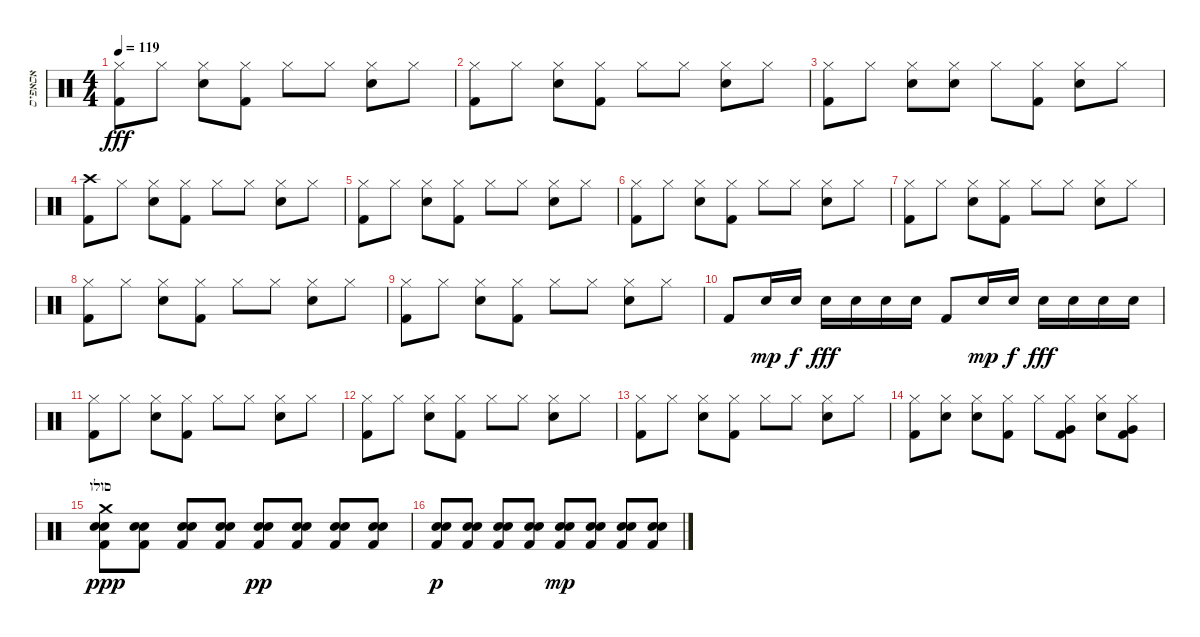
\track ("אסאפיס" "אסאפיס") {instrument percussion}
\staff {score}
\articulation defaults
\ts (4 4)
\tempo 119
\clef neutral
\ks c
("Hi-Hat (closed)" "Kick (hit) 2").8{dy fff} "Hi-Hat (closed)".8 ("Hi-Hat (closed)" "Snare (hit) 2").8 ("Hi-Hat (closed)" "Kick (hit) 2").8 "Hi-Hat (closed)".8 "Hi-Hat (closed)".8 ("Hi-Hat (closed)" "Snare (hit) 2").8 "Hi-Hat (closed)".8 |
("Hi-Hat (closed)" "Kick (hit) 2").8 "Hi-Hat (closed)".8 ("Hi-Hat (closed)" "Snare (hit) 2").8 ("Hi-Hat (closed)" "Kick (hit) 2").8 "Hi-Hat (closed)".8 "Hi-Hat (closed)".8 ("Hi-Hat (closed)" "Snare (hit) 2").8 "Hi-Hat (closed)".8 |
("Hi-Hat (closed)" "Kick (hit) 2").8 "Hi-Hat (closed)".8 ("Hi-Hat (closed)" "Snare (hit) 2").8 ("Hi-Hat (closed)" "Snare (hit) 2").8 "Hi-Hat (closed)".8 ("Hi-Hat (closed)" "Kick (hit) 2").8 ("Hi-Hat (closed)" "Snare (hit) 2").8 "Hi-Hat (closed)".8 |
("Crash high (hit)" "Kick (hit) 2").8 "Hi-Hat (closed)".8 ("Hi-Hat (closed)" "Snare (hit) 2").8 ("Hi-Hat (closed)" "Kick (hit) 2").8 "Hi-Hat (closed)".8 "Hi-Hat (closed)".8 ("Hi-Hat (closed)" "Snare (hit) 2").8 "Hi-Hat (closed)".8 |
("Hi-Hat (closed)" "Kick (hit) 2").8 "Hi-Hat (closed)".8 ("Hi-Hat (closed)" "Snare (hit) 2").8 ("Hi-Hat (closed)" "Kick (hit) 2").8 "Hi-Hat (closed)".8 "Hi-Hat (closed)".8 ("Hi-Hat (closed)" "Snare (hit) 2").8 "Hi-Hat (closed)".8 |
("Hi-Hat (closed)" "Kick (hit) 2").8 "Hi-Hat (closed)".8 ("Hi-Hat (closed)" "Snare (hit) 2").8 ("Hi-Hat (closed)" "Kick (hit) 2").8 "Hi-Hat (closed)".8 "Hi-Hat (closed)".8 ("Hi-Hat (closed)" "Snare (hit) 2").8 "Hi-Hat (closed)".8 |
("Hi-Hat (closed)" "Kick (hit) 2").8 "Hi-Hat (closed)".8 ("Hi-Hat (closed)" "Snare (hit) 2").8 ("Hi-Hat (closed)" "Kick (hit) 2").8 "Hi-Hat (closed)".8 "Hi-Hat (closed)".8 ("Hi-Hat (closed)" "Snare (hit) 2").8 "Hi-Hat (closed)".8 |
("Hi-Hat (closed)" "Kick (hit) 2").8 "Hi-Hat (closed)".8 ("Hi-Hat (closed)" "Snare (hit) 2").8 ("Hi-Hat (closed)" "Kick (hit) 2").8 "Hi-Hat (closed)".8 "Hi-Hat (closed)".8 ("Hi-Hat (closed)" "Snare (hit) 2").8 "Hi-Hat (closed)".8 |
("Hi-Hat (closed)" "Kick (hit) 2").8 "Hi-Hat (closed)".8 ("Hi-Hat (closed)" "Snare (hit) 2").8 ("Hi-Hat (closed)" "Kick (hit) 2").8 "Hi-Hat (closed)".8 "Hi-Hat (closed)".8 ("Hi-Hat (closed)" "Snare (hit) 2").8 "Hi-Hat (closed)".8 |
"Kick (hit) 2".8 "Snare (hit) 2".16{dy mp} "Snare (hit) 2".16{dy f} "Snare (hit) 2".16{dy fff} "Snare (hit) 2".16 "Snare (hit) 2".16 "Snare (hit) 2".16 "Kick (hit) 2".8 "Snare (hit) 2".16{dy mp} "Snare (hit) 2".16{dy f} "Snare (hit) 2".16{dy fff} "Snare (hit) 2".16 "Snare (hit) 2".16 "Snare (hit) 2".16 |
("Hi-Hat (closed)" "Kick (hit) 2").8 "Hi-Hat (closed)".8 ("Hi-Hat (closed)" "Snare (hit) 2").8 ("Hi-Hat (closed)" "Kick (hit) 2").8 "Hi-Hat (closed)".8 "Hi-Hat (closed)".8 ("Hi-Hat (closed)" "Snare (hit) 2").8 "Hi-Hat (closed)".8 |
("Hi-Hat (closed)" "Kick (hit) 2").8 "Hi-Hat (closed)".8 ("Hi-Hat (closed)" "Snare (hit) 2").8 ("Hi-Hat (closed)" "Kick (hit) 2").8 "Hi-Hat (closed)".8 "Hi-Hat (closed)".8 ("Hi-Hat (closed)" "Snare (hit) 2").8 "Hi-Hat (closed)".8 |
("Hi-Hat (closed)" "Kick (hit) 2").8 "Hi-Hat (closed)".8 ("Hi-Hat (closed)" "Snare (hit) 2").8 ("Hi-Hat (closed)" "Kick (hit) 2").8 "Hi-Hat (closed)".8 "Hi-Hat (closed)".8 ("Hi-Hat (closed)" "Snare (hit) 2").8 "Hi-Hat (closed)".8 |
("Hi-Hat (closed)" "Kick (hit) 2").8 ("Hi-Hat (closed)" "Snare (hit) 2").8 ("Hi-Hat (closed)" "Snare (hit) 2").8 ("Hi-Hat (closed)" "Kick (hit) 2").8 "Hi-Hat (closed)".8 ("Hi-Hat (closed)" "Very Low Tom (hit)" "Kick (hit) 2").8 ("Hi-Hat (closed)" "Snare (hit) 2").8 ("Hi-Hat (closed)" "Very Low Tom (hit)" "Kick (hit) 2").8 |
\section ("" "סולו")
("Crash medium (hit)" "Snare (hit) 2" "Snare (hit) 2" "Kick (hit) 2").8{dy ppp} ("Snare (hit) 2" "Snare (hit) 2" "Kick (hit) 2").8 ("Snare (hit) 2" "Snare (hit) 2" "Kick (hit) 2").8 ("Snare (hit) 2" "Snare (hit) 2" "Kick (hit) 2").8 ("Snare (hit) 2" "Snare (hit) 2" "Kick (hit) 2").8{dy pp} ("Snare (hit) 2" "Snare (hit) 2" "Kick (hit) 2").8 ("Snare (hit) 2" "Snare (hit) 2" "Kick (hit) 2").8 ("Snare (hit) 2" "Snare (hit) 2" "Kick (hit) 2").8 |
("Snare (hit) 2" "Snare (hit) 2" "Kick (hit) 2").8{dy p} ("Snare (hit) 2" "Snare (hit) 2" "Kick (hit) 2").8 ("Snare (hit) 2" "Snare (hit) 2" "Kick (hit) 2").8 ("Snare (hit) 2" "Snare (hit) 2" "Kick (hit) 2").8 ("Snare (hit) 2" "Snare (hit) 2" "Kick (hit) 2").8{dy mp} ("Snare (hit) 2" "Snare (hit) 2" "Kick (hit) 2").8 ("Snare (hit) 2" "Snare (hit) 2" "Kick (hit) 2").8 ("Snare (hit) 2" "Snare (hit) 2" "Kick (hit) 2").8
